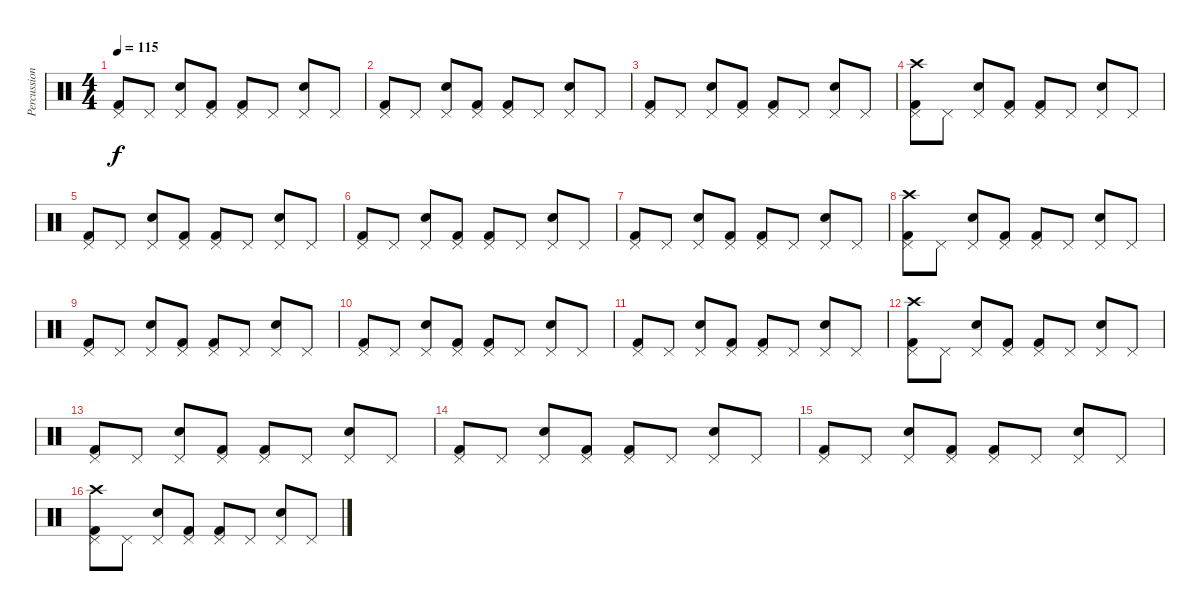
\track ("Percussion" "Percussion") {instrument percussion}
\staff {score}
\articulation defaults
\ts (4 4)
\tempo 115
\clef neutral
\ks c
("Pedal Hi-Hat (hit)" "Kick (hit) 2").8{dy f} "Pedal Hi-Hat (hit)".8 ("Pedal Hi-Hat (hit)" "Snare (hit) 2").8 ("Pedal Hi-Hat (hit)" "Kick (hit) 2").8 ("Pedal Hi-Hat (hit)" "Kick (hit) 2").8 "Pedal Hi-Hat (hit)".8 ("Pedal Hi-Hat (hit)" "Snare (hit) 2").8 "Pedal Hi-Hat (hit)".8 |
("Pedal Hi-Hat (hit)" "Kick (hit) 2").8 "Pedal Hi-Hat (hit)".8 ("Pedal Hi-Hat (hit)" "Snare (hit) 2").8 ("Pedal Hi-Hat (hit)" "Kick (hit) 2").8 ("Pedal Hi-Hat (hit)" "Kick (hit) 2").8 "Pedal Hi-Hat (hit)".8 ("Pedal Hi-Hat (hit)" "Snare (hit) 2").8 "Pedal Hi-Hat (hit)".8 |
("Pedal Hi-Hat (hit)" "Kick (hit) 2").8 "Pedal Hi-Hat (hit)".8 ("Pedal Hi-Hat (hit)" "Snare (hit) 2").8 ("Pedal Hi-Hat (hit)" "Kick (hit) 2").8 ("Pedal Hi-Hat (hit)" "Kick (hit) 2").8 "Pedal Hi-Hat (hit)".8 ("Pedal Hi-Hat (hit)" "Snare (hit) 2").8 "Pedal Hi-Hat (hit)".8 |
("Crash high (hit)" "Pedal Hi-Hat (hit)" "Kick (hit) 2").8 "Pedal Hi-Hat (hit)".8 ("Pedal Hi-Hat (hit)" "Snare (hit) 2").8 ("Pedal Hi-Hat (hit)" "Kick (hit) 2").8 ("Pedal Hi-Hat (hit)" "Kick (hit) 2").8 "Pedal Hi-Hat (hit)".8 ("Pedal Hi-Hat (hit)" "Snare (hit) 2").8 "Pedal Hi-Hat (hit)".8 |
("Pedal Hi-Hat (hit)" "Kick (hit) 2").8 "Pedal Hi-Hat (hit)".8 ("Pedal Hi-Hat (hit)" "Snare (hit) 2").8 ("Pedal Hi-Hat (hit)" "Kick (hit) 2").8 ("Pedal Hi-Hat (hit)" "Kick (hit) 2").8 "Pedal Hi-Hat (hit)".8 ("Pedal Hi-Hat (hit)" "Snare (hit) 2").8 "Pedal Hi-Hat (hit)".8 |
("Pedal Hi-Hat (hit)" "Kick (hit) 2").8 "Pedal Hi-Hat (hit)".8 ("Pedal Hi-Hat (hit)" "Snare (hit) 2").8 ("Pedal Hi-Hat (hit)" "Kick (hit) 2").8 ("Pedal Hi-Hat (hit)" "Kick (hit) 2").8 "Pedal Hi-Hat (hit)".8 ("Pedal Hi-Hat (hit)" "Snare (hit) 2").8 "Pedal Hi-Hat (hit)".8 |
("Pedal Hi-Hat (hit)" "Kick (hit) 2").8 "Pedal Hi-Hat (hit)".8 ("Pedal Hi-Hat (hit)" "Snare (hit) 2").8 ("Pedal Hi-Hat (hit)" "Kick (hit) 2").8 ("Pedal Hi-Hat (hit)" "Kick (hit) 2").8 "Pedal Hi-Hat (hit)".8 ("Pedal Hi-Hat (hit)" "Snare (hit) 2").8 "Pedal Hi-Hat (hit)".8 |
("Crash high (hit)" "Pedal Hi-Hat (hit)" "Kick (hit) 2").8 "Pedal Hi-Hat (hit)".8 ("Pedal Hi-Hat (hit)" "Snare (hit) 2").8 ("Pedal Hi-Hat (hit)" "Kick (hit) 2").8 ("Pedal Hi-Hat (hit)" "Kick (hit) 2").8 "Pedal Hi-Hat (hit)".8 ("Pedal Hi-Hat (hit)" "Snare (hit) 2").8 "Pedal Hi-Hat (hit)".8 |
("Pedal Hi-Hat (hit)" "Kick (hit) 2").8 "Pedal Hi-Hat (hit)".8 ("Pedal Hi-Hat (hit)" "Snare (hit) 2").8 ("Pedal Hi-Hat (hit)" "Kick (hit) 2").8 ("Pedal Hi-Hat (hit)" "Kick (hit) 2").8 "Pedal Hi-Hat (hit)".8 ("Pedal Hi-Hat (hit)" "Snare (hit) 2").8 "Pedal Hi-Hat (hit)".8 |
("Pedal Hi-Hat (hit)" "Kick (hit) 2").8 "Pedal Hi-Hat (hit)".8 ("Pedal Hi-Hat (hit)" "Snare (hit) 2").8 ("Pedal Hi-Hat (hit)" "Kick (hit) 2").8 ("Pedal Hi-Hat (hit)" "Kick (hit) 2").8 "Pedal Hi-Hat (hit)".8 ("Pedal Hi-Hat (hit)" "Snare (hit) 2").8 "Pedal Hi-Hat (hit)".8 |
("Pedal Hi-Hat (hit)" "Kick (hit) 2").8 "Pedal Hi-Hat (hit)".8 ("Pedal Hi-Hat (hit)" "Snare (hit) 2").8 ("Pedal Hi-Hat (hit)" "Kick (hit) 2").8 ("Pedal Hi-Hat (hit)" "Kick (hit) 2").8 "Pedal Hi-Hat (hit)".8 ("Pedal Hi-Hat (hit)" "Snare (hit) 2").8 "Pedal Hi-Hat (hit)".8 |
("Crash high (hit)" "Pedal Hi-Hat (hit)" "Kick (hit) 2").8 "Pedal Hi-Hat (hit)".8 ("Pedal Hi-Hat (hit)" "Snare (hit) 2").8 ("Pedal Hi-Hat (hit)" "Kick (hit) 2").8 ("Pedal Hi-Hat (hit)" "Kick (hit) 2").8 "Pedal Hi-Hat (hit)".8 ("Pedal Hi-Hat (hit)" "Snare (hit) 2").8 "Pedal Hi-Hat (hit)".8 |
("Pedal Hi-Hat (hit)" "Kick (hit) 2").8 "Pedal Hi-Hat (hit)".8 ("Pedal Hi-Hat (hit)" "Snare (hit) 2").8 ("Pedal Hi-Hat (hit)" "Kick (hit) 2").8 ("Pedal Hi-Hat (hit)" "Kick (hit) 2").8 "Pedal Hi-Hat (hit)".8 ("Pedal Hi-Hat (hit)" "Snare (hit) 2").8 "Pedal Hi-Hat (hit)".8 |
("Pedal Hi-Hat (hit)" "Kick (hit) 2").8 "Pedal Hi-Hat (hit)".8 ("Pedal Hi-Hat (hit)" "Snare (hit) 2").8 ("Pedal Hi-Hat (hit)" "Kick (hit) 2").8 ("Pedal Hi-Hat (hit)" "Kick (hit) 2").8 "Pedal Hi-Hat (hit)".8 ("Pedal Hi-Hat (hit)" "Snare (hit) 2").8 "Pedal Hi-Hat (hit)".8 |
("Pedal Hi-Hat (hit)" "Kick (hit) 2").8 "Pedal Hi-Hat (hit)".8 ("Pedal Hi-Hat (hit)" "Snare (hit) 2").8 ("Pedal Hi-Hat (hit)" "Kick (hit) 2").8 ("Pedal Hi-Hat (hit)" "Kick (hit) 2").8 "Pedal Hi-Hat (hit)".8 ("Pedal Hi-Hat (hit)" "Snare (hit) 2").8 "Pedal Hi-Hat (hit)".8 |
("Crash high (hit)" "Pedal Hi-Hat (hit)" "Kick (hit) 2").8 "Pedal Hi-Hat (hit)".8 ("Pedal Hi-Hat (hit)" "Snare (hit) 2").8 ("Pedal Hi-Hat (hit)" "Kick (hit) 2").8 ("Pedal Hi-Hat (hit)" "Kick (hit) 2").8 "Pedal Hi-Hat (hit)".8 ("Pedal Hi-Hat (hit)" "Snare (hit) 2").8 "Pedal Hi-Hat (hit)".8
